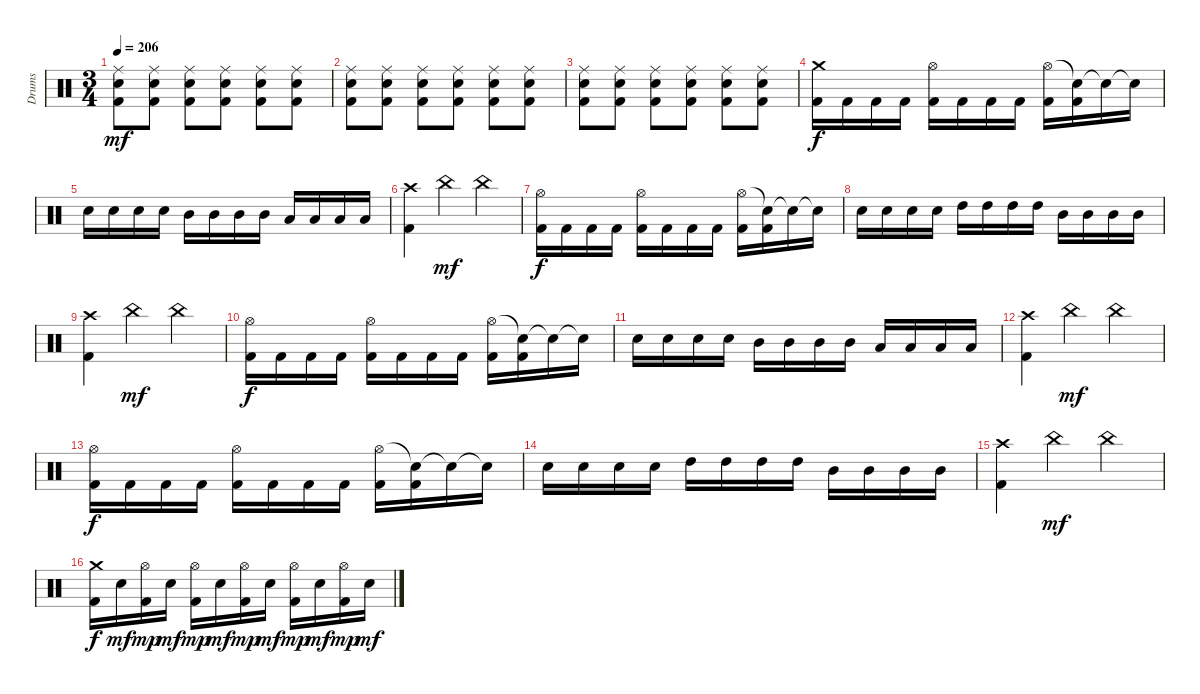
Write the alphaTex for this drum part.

\track ("Drums" "Drums") {instrument percussion}
\staff {score}
\articulation defaults
\ts (3 4)
\tempo 206
\clef neutral
\ks c
("Ride (middle)" "Electric Snare (hit)" "Kick (hit) 2").8{dy mf} ("Ride (middle)" "Electric Snare (hit)" "Kick (hit) 2").8 ("Ride (middle)" "Electric Snare (hit)" "Kick (hit) 2").8 ("Ride (middle)" "Electric Snare (hit)" "Kick (hit) 2").8 ("Ride (middle)" "Electric Snare (hit)" "Kick (hit) 2").8 ("Ride (middle)" "Electric Snare (hit)" "Kick (hit) 2").8 |
("Ride (middle)" "Electric Snare (hit)" "Kick (hit) 2").8 ("Ride (middle)" "Electric Snare (hit)" "Kick (hit) 2").8 ("Ride (middle)" "Electric Snare (hit)" "Kick (hit) 2").8 ("Ride (middle)" "Electric Snare (hit)" "Kick (hit) 2").8 ("Ride (middle)" "Electric Snare (hit)" "Kick (hit) 2").8 ("Ride (middle)" "Electric Snare (hit)" "Kick (hit) 2").8 |
("Ride (middle)" "Electric Snare (hit)" "Kick (hit) 2").8 ("Ride (middle)" "Electric Snare (hit)" "Kick (hit) 2").8 ("Ride (middle)" "Electric Snare (hit)" "Kick (hit) 2").8 ("Ride (middle)" "Electric Snare (hit)" "Kick (hit) 2").8 ("Ride (middle)" "Electric Snare (hit)" "Kick (hit) 2").8 ("Ride (middle)" "Electric Snare (hit)" "Kick (hit) 2").8 |
("Crash medium (hit)" "Kick (hit) 2").16{dy f} "Kick (hit) 2".16 "Kick (hit) 2".16 "Kick (hit) 2".16 ("Hi-Hat (open)" "Kick (hit) 2").16 "Kick (hit) 2".16 "Kick (hit) 2".16 "Kick (hit) 2".16 ("Hi-Hat (open)" "Kick (hit) 2").16 ("Snare (hit)"{t} "Kick (hit) 2").16 "Snare (hit)"{t}.16 "Snare (hit)"{t}.16 |
"Electric Snare (hit)".16 "Electric Snare (hit)".16 "Electric Snare (hit)".16 "Electric Snare (hit)".16 "Mid Tom (hit)".16 "Mid Tom (hit)".16 "Mid Tom (hit)".16 "Mid Tom (hit)".16 "Low Tom (hit)".16 "Low Tom (hit)".16 "Low Tom (hit)".16 "Low Tom (hit)".16 |
("Crash high (hit)" "Kick (hit) 2").4 "China (hit)".4{dy mf} "China (hit)".4 |
("Hi-Hat (open)" "Kick (hit) 2").16{dy f} "Kick (hit) 2".16 "Kick (hit) 2".16 "Kick (hit) 2".16 ("Hi-Hat (open)" "Kick (hit) 2").16 "Kick (hit) 2".16 "Kick (hit) 2".16 "Kick (hit) 2".16 ("Hi-Hat (open)" "Kick (hit) 2").16 ("Snare (hit)"{t} "Kick (hit) 2").16 "Snare (hit)"{t}.16 "Snare (hit)"{t}.16 |
"Electric Snare (hit)".16 "Electric Snare (hit)".16 "Electric Snare (hit)".16 "Electric Snare (hit)".16 "High Tom (hit)".16 "High Tom (hit)".16 "High Tom (hit)".16 "High Tom (hit)".16 "Mid Tom (hit)".16 "Mid Tom (hit)".16 "Mid Tom (hit)".16 "Mid Tom (hit)".16 |
("Crash high (hit)" "Kick (hit) 2").4 "China (hit)".4{dy mf} "China (hit)".4 |
("Hi-Hat (open)" "Kick (hit) 2").16{dy f} "Kick (hit) 2".16 "Kick (hit) 2".16 "Kick (hit) 2".16 ("Hi-Hat (open)" "Kick (hit) 2").16 "Kick (hit) 2".16 "Kick (hit) 2".16 "Kick (hit) 2".16 ("Hi-Hat (open)" "Kick (hit) 2").16 ("Snare (hit)"{t} "Kick (hit) 2").16 "Snare (hit)"{t}.16 "Snare (hit)"{t}.16 |
"Electric Snare (hit)".16 "Electric Snare (hit)".16 "Electric Snare (hit)".16 "Electric Snare (hit)".16 "Mid Tom (hit)".16 "Mid Tom (hit)".16 "Mid Tom (hit)".16 "Mid Tom (hit)".16 "Low Tom (hit)".16 "Low Tom (hit)".16 "Low Tom (hit)".16 "Low Tom (hit)".16 |
("Crash high (hit)" "Kick (hit) 2").4 "China (hit)".4{dy mf} "China (hit)".4 |
("Hi-Hat (open)" "Kick (hit) 2").16{dy f} "Kick (hit) 2".16 "Kick (hit) 2".16 "Kick (hit) 2".16 ("Hi-Hat (open)" "Kick (hit) 2").16 "Kick (hit) 2".16 "Kick (hit) 2".16 "Kick (hit) 2".16 ("Hi-Hat (open)" "Kick (hit) 2").16 ("Snare (hit)"{t} "Kick (hit) 2").16 "Snare (hit)"{t}.16 "Snare (hit)"{t}.16 |
"Electric Snare (hit)".16 "Electric Snare (hit)".16 "Electric Snare (hit)".16 "Electric Snare (hit)".16 "High Tom (hit)".16 "High Tom (hit)".16 "High Tom (hit)".16 "High Tom (hit)".16 "Mid Tom (hit)".16 "Mid Tom (hit)".16 "Mid Tom (hit)".16 "Mid Tom (hit)".16 |
("Crash high (hit)" "Kick (hit) 2").4 "China (hit)".4{dy mf} "China (hit)".4 |
("Crash medium (hit)" "Kick (hit) 2").16{dy f} "Electric Snare (hit)".16{dy mf} ("Hi-Hat (open)" "Kick (hit) 2").16{dy mp} "Electric Snare (hit)".16{dy mf} ("Hi-Hat (open)" "Kick (hit) 2").16{dy mp} "Electric Snare (hit)".16{dy mf} ("Hi-Hat (open)" "Kick (hit) 2").16{dy mp} "Electric Snare (hit)".16{dy mf} ("Hi-Hat (open)" "Kick (hit) 2").16{dy mp} "Electric Snare (hit)".16{dy mf} ("Hi-Hat (open)" "Kick (hit) 2").16{dy mp} "Electric Snare (hit)".16{dy mf}
